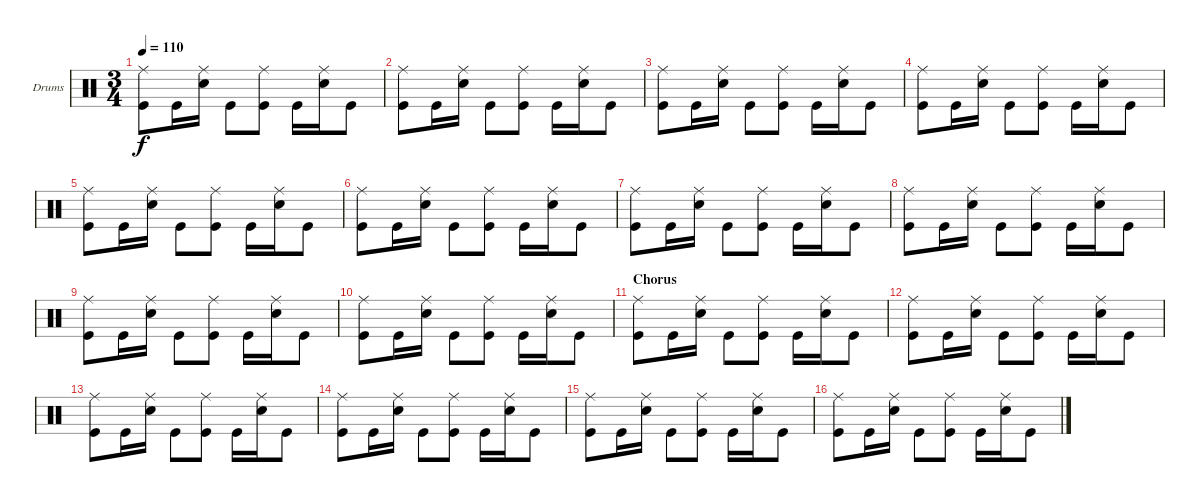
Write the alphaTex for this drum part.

\defaultSystemsLayout 4
\bracketExtendMode nobrackets
\firstSystemTrackNameOrientation horizontal
\otherSystemsTrackNameOrientation horizontal
\track ("Drumkit" "Drums") {instrument percussion}
\staff {score}
\articulation defaults
\ts (3 4)
\tempo 110
\clef neutral
\ks c
("Ride (middle)" "Kick (hit)").8{dy f} "Kick (hit)".16 ("Ride (middle)" "Snare (hit) 2").16 "Kick (hit)".8 ("Ride (middle)" "Kick (hit)").8 "Kick (hit)".16 ("Ride (middle)" "Snare (hit) 2").16 "Kick (hit)".8 |
("Ride (middle)" "Kick (hit)").8 "Kick (hit)".16 ("Ride (middle)" "Snare (hit) 2").16 "Kick (hit)".8 ("Ride (middle)" "Kick (hit)").8 "Kick (hit)".16 ("Ride (middle)" "Snare (hit) 2").16 "Kick (hit)".8 |
("Ride (middle)" "Kick (hit)").8 "Kick (hit)".16 ("Ride (middle)" "Snare (hit) 2").16 "Kick (hit)".8 ("Ride (middle)" "Kick (hit)").8 "Kick (hit)".16 ("Ride (middle)" "Snare (hit) 2").16 "Kick (hit)".8 |
("Ride (middle)" "Kick (hit)").8 "Kick (hit)".16 ("Ride (middle)" "Snare (hit) 2").16 "Kick (hit)".8 ("Ride (middle)" "Kick (hit)").8 "Kick (hit)".16 ("Ride (middle)" "Snare (hit) 2").16 "Kick (hit)".8 |
("Ride (middle)" "Kick (hit)").8 "Kick (hit)".16 ("Ride (middle)" "Snare (hit) 2").16 "Kick (hit)".8 ("Ride (middle)" "Kick (hit)").8 "Kick (hit)".16 ("Ride (middle)" "Snare (hit) 2").16 "Kick (hit)".8 |
("Ride (middle)" "Kick (hit)").8 "Kick (hit)".16 ("Ride (middle)" "Snare (hit) 2").16 "Kick (hit)".8 ("Ride (middle)" "Kick (hit)").8 "Kick (hit)".16 ("Ride (middle)" "Snare (hit) 2").16 "Kick (hit)".8 |
("Ride (middle)" "Kick (hit)").8 "Kick (hit)".16 ("Ride (middle)" "Snare (hit) 2").16 "Kick (hit)".8 ("Ride (middle)" "Kick (hit)").8 "Kick (hit)".16 ("Ride (middle)" "Snare (hit) 2").16 "Kick (hit)".8 |
("Ride (middle)" "Kick (hit)").8 "Kick (hit)".16 ("Ride (middle)" "Snare (hit) 2").16 "Kick (hit)".8 ("Ride (middle)" "Kick (hit)").8 "Kick (hit)".16 ("Ride (middle)" "Snare (hit) 2").16 "Kick (hit)".8 |
("Ride (middle)" "Kick (hit)").8 "Kick (hit)".16 ("Ride (middle)" "Snare (hit) 2").16 "Kick (hit)".8 ("Ride (middle)" "Kick (hit)").8 "Kick (hit)".16 ("Ride (middle)" "Snare (hit) 2").16 "Kick (hit)".8 |
("Ride (middle)" "Kick (hit)").8 "Kick (hit)".16 ("Ride (middle)" "Snare (hit) 2").16 "Kick (hit)".8 ("Ride (middle)" "Kick (hit)").8 "Kick (hit)".16 ("Ride (middle)" "Snare (hit) 2").16 "Kick (hit)".8 |
\section ("" "Chorus")
("Ride (middle)" "Kick (hit)").8 "Kick (hit)".16 ("Ride (middle)" "Snare (hit) 2").16 "Kick (hit)".8 ("Ride (middle)" "Kick (hit)").8 "Kick (hit)".16 ("Ride (middle)" "Snare (hit) 2").16 "Kick (hit)".8 |
("Ride (middle)" "Kick (hit)").8 "Kick (hit)".16 ("Ride (middle)" "Snare (hit) 2").16 "Kick (hit)".8 ("Ride (middle)" "Kick (hit)").8 "Kick (hit)".16 ("Ride (middle)" "Snare (hit) 2").16 "Kick (hit)".8 |
("Ride (middle)" "Kick (hit)").8 "Kick (hit)".16 ("Ride (middle)" "Snare (hit) 2").16 "Kick (hit)".8 ("Ride (middle)" "Kick (hit)").8 "Kick (hit)".16 ("Ride (middle)" "Snare (hit) 2").16 "Kick (hit)".8 |
("Ride (middle)" "Kick (hit)").8 "Kick (hit)".16 ("Ride (middle)" "Snare (hit) 2").16 "Kick (hit)".8 ("Ride (middle)" "Kick (hit)").8 "Kick (hit)".16 ("Ride (middle)" "Snare (hit) 2").16 "Kick (hit)".8 |
("Ride (middle)" "Kick (hit)").8 "Kick (hit)".16 ("Ride (middle)" "Snare (hit) 2").16 "Kick (hit)".8 ("Ride (middle)" "Kick (hit)").8 "Kick (hit)".16 ("Ride (middle)" "Snare (hit) 2").16 "Kick (hit)".8 |
("Ride (middle)" "Kick (hit)").8 "Kick (hit)".16 ("Ride (middle)" "Snare (hit) 2").16 "Kick (hit)".8 ("Ride (middle)" "Kick (hit)").8 "Kick (hit)".16 ("Ride (middle)" "Snare (hit) 2").16 "Kick (hit)".8
